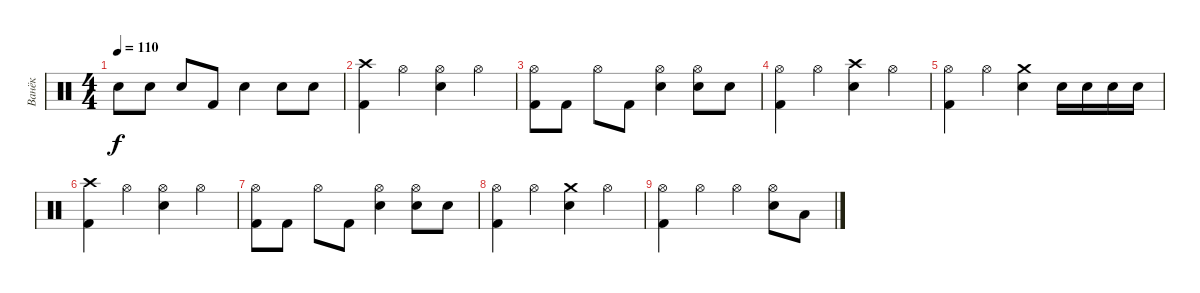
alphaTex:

\track ("Ванёк" "Ванёк") {instrument percussion}
\staff {score}
\articulation defaults
\ts (4 4)
\tempo 110
\clef neutral
\ks c "Electric Snare (hit)".8{dy f} "Electric Snare (hit)".8 "Electric Snare (hit)".8 "Kick (hit) 2".8 "Electric Snare (hit)".4 "Electric Snare (hit)".8 "Electric Snare (hit)".8
|
("Crash high (hit)" "Kick (hit) 2").4 "Hi-Hat (open)".4 ("Hi-Hat (open)" "Electric Snare (hit)").4 "Hi-Hat (open)".4 |
("Hi-Hat (open)" "Kick (hit) 2").8 "Kick (hit) 2".8 "Hi-Hat (open)".8 "Kick (hit) 2".8 ("Hi-Hat (open)" "Electric Snare (hit)").4 ("Hi-Hat (open)" "Electric Snare (hit)").8 "Electric Snare (hit)".8 |
("Hi-Hat (open)" "Kick (hit) 2").4 "Hi-Hat (open)".4 ("Crash high (hit)" "Electric Snare (hit)").4 "Hi-Hat (open)".4 |
("Hi-Hat (open)" "Kick (hit) 2").4 "Hi-Hat (open)".4 ("Crash medium (hit)" "Electric Snare (hit)").4 "Electric Snare (hit)".16 "Electric Snare (hit)".16 "Electric Snare (hit)".16 "Electric Snare (hit)".16 |
("Crash high (hit)" "Kick (hit) 2").4 "Hi-Hat (open)".4 ("Hi-Hat (open)" "Electric Snare (hit)").4 "Hi-Hat (open)".4 |
("Hi-Hat (open)" "Kick (hit) 2").8 "Kick (hit) 2".8 "Hi-Hat (open)".8 "Kick (hit) 2".8 ("Hi-Hat (open)" "Electric Snare (hit)").4 ("Hi-Hat (open)" "Electric Snare (hit)").8 "Electric Snare (hit)".8 |
("Hi-Hat (open)" "Kick (hit) 2").4 "Hi-Hat (open)".4 ("Crash medium (hit)" "Electric Snare (hit)").4 "Hi-Hat (open)".4 |
("Hi-Hat (open)" "Kick (hit) 2").4 "Hi-Hat (open)".4 "Hi-Hat (open)".4 ("Hi-Hat (open)" "Electric Snare (hit)").8 "Low Floor Tom (hit)".8
